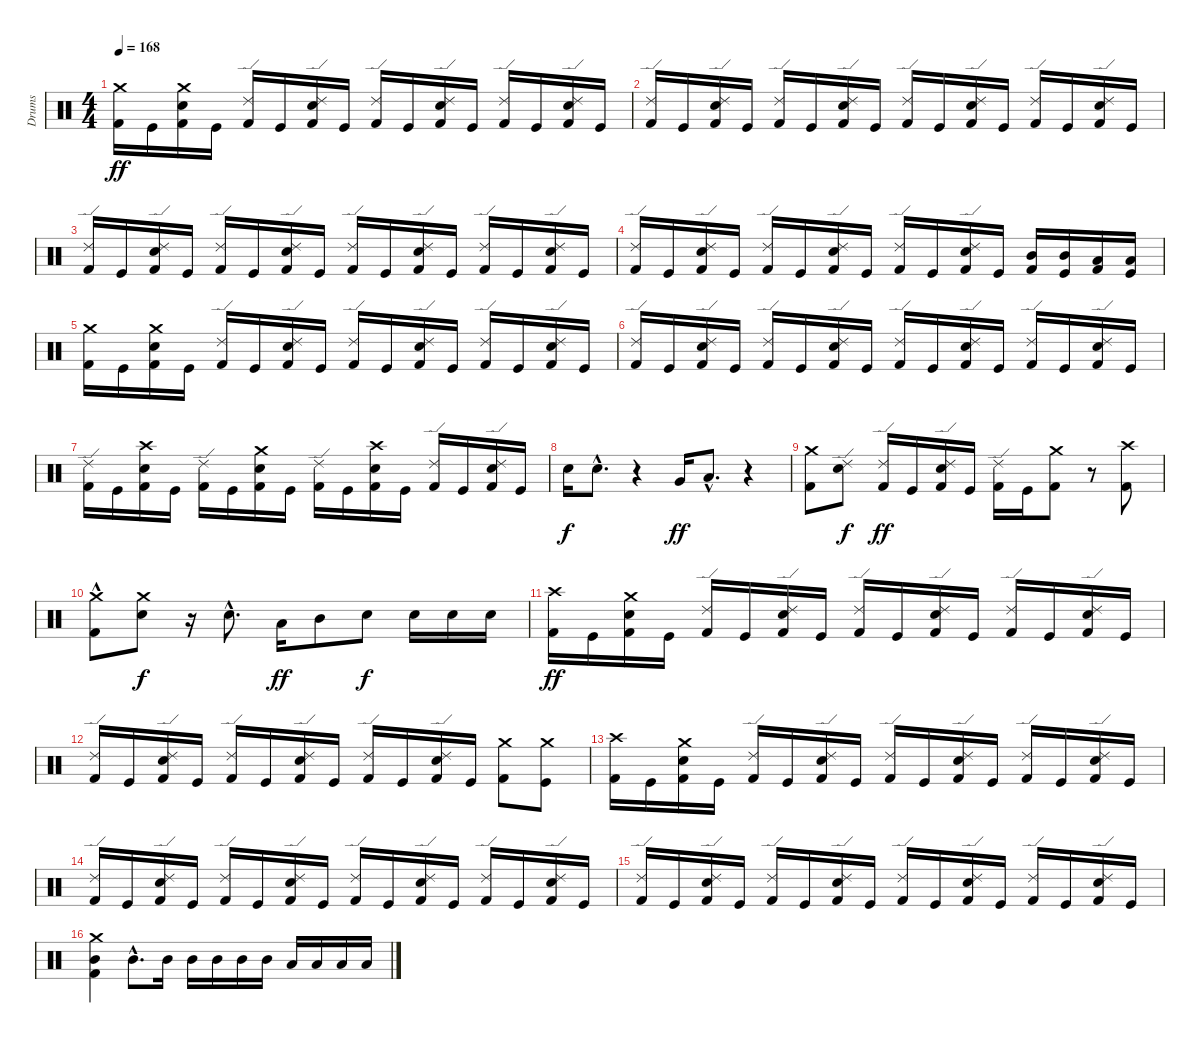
\track ("Drums" "Drums") {instrument percussion}
\staff {score}
\articulation defaults
\ts (4 4)
\tempo 168
\clef neutral
\ks c
("Crash medium (hit)" "Kick (hit) 2").16{dy ff} "Kick (hit)".16 ("Crash medium (hit)" "Electric Snare (hit)" "Kick (hit) 2").16 "Kick (hit)".16 ("Ride (edge) 2" "Kick (hit) 2").16 "Kick (hit)".16 ("Ride (edge) 2" "Electric Snare (hit)" "Kick (hit) 2").16 "Kick (hit)".16 ("Ride (edge) 2" "Kick (hit) 2").16 "Kick (hit)".16 ("Ride (edge) 2" "Electric Snare (hit)" "Kick (hit) 2").16 "Kick (hit)".16 ("Ride (edge) 2" "Kick (hit) 2").16 "Kick (hit)".16 ("Ride (edge) 2" "Electric Snare (hit)" "Kick (hit) 2").16 "Kick (hit)".16 |
("Ride (edge) 2" "Kick (hit) 2").16 "Kick (hit)".16 ("Ride (edge) 2" "Electric Snare (hit)" "Kick (hit) 2").16 "Kick (hit)".16 ("Ride (edge) 2" "Kick (hit) 2").16 "Kick (hit)".16 ("Ride (edge) 2" "Electric Snare (hit)" "Kick (hit) 2").16 "Kick (hit)".16 ("Ride (edge) 2" "Kick (hit) 2").16 "Kick (hit)".16 ("Ride (edge) 2" "Electric Snare (hit)" "Kick (hit) 2").16 "Kick (hit)".16 ("Ride (edge) 2" "Kick (hit) 2").16 "Kick (hit)".16 ("Ride (edge) 2" "Electric Snare (hit)" "Kick (hit) 2").16 "Kick (hit)".16 |
("Ride (edge) 2" "Kick (hit) 2").16 "Kick (hit)".16 ("Ride (edge) 2" "Electric Snare (hit)" "Kick (hit) 2").16 "Kick (hit)".16 ("Ride (edge) 2" "Kick (hit) 2").16 "Kick (hit)".16 ("Ride (edge) 2" "Electric Snare (hit)" "Kick (hit) 2").16 "Kick (hit)".16 ("Ride (edge) 2" "Kick (hit) 2").16 "Kick (hit)".16 ("Ride (edge) 2" "Electric Snare (hit)" "Kick (hit) 2").16 "Kick (hit)".16 ("Ride (edge) 2" "Kick (hit) 2").16 "Kick (hit)".16 ("Ride (edge) 2" "Electric Snare (hit)" "Kick (hit) 2").16 "Kick (hit)".16 |
("Ride (edge) 2" "Kick (hit) 2").16 "Kick (hit)".16 ("Ride (edge) 2" "Electric Snare (hit)" "Kick (hit) 2").16 "Kick (hit)".16 ("Ride (edge) 2" "Kick (hit) 2").16 "Kick (hit)".16 ("Ride (edge) 2" "Electric Snare (hit)" "Kick (hit) 2").16 "Kick (hit)".16 ("Ride (edge) 2" "Kick (hit) 2").16 "Kick (hit)".16 ("Ride (edge) 2" "Electric Snare (hit)" "Kick (hit) 2").16 "Kick (hit)".16 ("Mid Tom (hit)" "Kick (hit) 2").16 ("Mid Tom (hit)" "Kick (hit)").16 ("Low Tom (hit)" "Kick (hit) 2").16 ("Low Tom (hit)" "Kick (hit)").16 |
("Crash medium (hit)" "Kick (hit) 2").16 "Kick (hit)".16 ("Crash medium (hit)" "Electric Snare (hit)" "Kick (hit) 2").16 "Kick (hit)".16 ("Ride (edge) 2" "Kick (hit) 2").16 "Kick (hit)".16 ("Ride (edge) 2" "Electric Snare (hit)" "Kick (hit) 2").16 "Kick (hit)".16 ("Ride (edge) 2" "Kick (hit) 2").16 "Kick (hit)".16 ("Ride (edge) 2" "Electric Snare (hit)" "Kick (hit) 2").16 "Kick (hit)".16 ("Ride (edge) 2" "Kick (hit) 2").16 "Kick (hit)".16 ("Ride (edge) 2" "Electric Snare (hit)" "Kick (hit) 2").16 "Kick (hit)".16 |
("Ride (edge) 2" "Kick (hit) 2").16 "Kick (hit)".16 ("Ride (edge) 2" "Electric Snare (hit)" "Kick (hit) 2").16 "Kick (hit)".16 ("Ride (edge) 2" "Kick (hit) 2").16 "Kick (hit)".16 ("Ride (edge) 2" "Electric Snare (hit)" "Kick (hit) 2").16 "Kick (hit)".16 ("Ride (edge) 2" "Kick (hit) 2").16 "Kick (hit)".16 ("Ride (edge) 2" "Electric Snare (hit)" "Kick (hit) 2").16 "Kick (hit)".16 ("Ride (edge) 2" "Kick (hit) 2").16 "Kick (hit)".16 ("Ride (edge) 2" "Electric Snare (hit)" "Kick (hit) 2").16 "Kick (hit)".16 |
("Ride (edge) 2" "Kick (hit) 2").16 "Kick (hit)".16 ("Crash high (hit)" "Electric Snare (hit)" "Kick (hit) 2").16 "Kick (hit)".16 ("Ride (edge) 2" "Kick (hit) 2").16 "Kick (hit)".16 ("Crash medium (hit)" "Electric Snare (hit)" "Kick (hit) 2").16 "Kick (hit)".16 ("Ride (edge) 2" "Kick (hit) 2").16 "Kick (hit)".16 ("Crash high (hit)" "Electric Snare (hit)" "Kick (hit) 2").16 "Kick (hit)".16 ("Ride (edge) 2" "Kick (hit) 2").16 "Kick (hit)".16 ("Ride (edge) 2" "Electric Snare (hit)" "Kick (hit) 2").16 "Kick (hit)".16 |
"Electric Snare (hit)".16{dy f} "Electric Snare (hit)"{hac}.8{d} r.4 "Very Low Tom (hit)".16{dy ff} "Low Tom (hit)"{hac}.8{d} r.4 |
("Crash medium (hit)" "Kick (hit) 2").8 ("Ride (edge) 2" "Electric Snare (hit)").8{dy f} ("Ride (edge) 2" "Kick (hit) 2").16{dy ff} "Kick (hit)".16 ("Ride (edge) 2" "Electric Snare (hit)" "Kick (hit) 2").16 "Kick (hit)".16 ("Ride (edge) 2" "Kick (hit) 2").16 "Kick (hit)".16 ("Crash medium (hit)" "Kick (hit) 2").8 r.8 ("Crash high (hit)" "Kick (hit) 2").8 |
("Crash medium (hit)"{hac} "Kick (hit) 2").8 ("Crash medium (hit)" "Electric Snare (hit)").8{dy f} r.16 "Electric Snare (hit)"{hac}.8{d} "Low Tom (hit)".16{dy ff} "Mid Tom (hit)".8 "Electric Snare (hit)".8{dy f} "Electric Snare (hit)".16 "Electric Snare (hit)".16 "Electric Snare (hit)".16 |
("Crash high (hit)" "Kick (hit) 2").16{dy ff} "Kick (hit)".16 ("Crash medium (hit)" "Electric Snare (hit)" "Kick (hit) 2").16 "Kick (hit)".16 ("Ride (edge) 2" "Kick (hit) 2").16 "Kick (hit)".16 ("Ride (edge) 2" "Electric Snare (hit)" "Kick (hit) 2").16 "Kick (hit)".16 ("Ride (edge) 2" "Kick (hit) 2").16 "Kick (hit)".16 ("Ride (edge) 2" "Electric Snare (hit)" "Kick (hit) 2").16 "Kick (hit)".16 ("Ride (edge) 2" "Kick (hit) 2").16 "Kick (hit)".16 ("Ride (edge) 2" "Electric Snare (hit)" "Kick (hit) 2").16 "Kick (hit)".16 |
("Ride (edge) 2" "Kick (hit) 2").16 "Kick (hit)".16 ("Ride (edge) 2" "Electric Snare (hit)" "Kick (hit) 2").16 "Kick (hit)".16 ("Ride (edge) 2" "Kick (hit) 2").16 "Kick (hit)".16 ("Ride (edge) 2" "Electric Snare (hit)" "Kick (hit) 2").16 "Kick (hit)".16 ("Ride (edge) 2" "Kick (hit) 2").16 "Kick (hit)".16 ("Ride (edge) 2" "Electric Snare (hit)" "Kick (hit) 2").16 "Kick (hit)".16 ("Crash medium (hit)" "Kick (hit) 2").8 ("Crash medium (hit)" "Kick (hit)").8 |
("Crash high (hit)" "Kick (hit) 2").16 "Kick (hit)".16 ("Crash medium (hit)" "Electric Snare (hit)" "Kick (hit) 2").16 "Kick (hit)".16 ("Ride (edge) 2" "Kick (hit) 2").16 "Kick (hit)".16 ("Ride (edge) 2" "Electric Snare (hit)" "Kick (hit) 2").16 "Kick (hit)".16 ("Ride (edge) 2" "Kick (hit) 2").16 "Kick (hit)".16 ("Ride (edge) 2" "Electric Snare (hit)" "Kick (hit) 2").16 "Kick (hit)".16 ("Ride (edge) 2" "Kick (hit) 2").16 "Kick (hit)".16 ("Ride (edge) 2" "Electric Snare (hit)" "Kick (hit) 2").16 "Kick (hit)".16 |
("Ride (edge) 2" "Kick (hit) 2").16 "Kick (hit)".16 ("Ride (edge) 2" "Electric Snare (hit)" "Kick (hit) 2").16 "Kick (hit)".16 ("Ride (edge) 2" "Kick (hit) 2").16 "Kick (hit)".16 ("Ride (edge) 2" "Electric Snare (hit)" "Kick (hit) 2").16 "Kick (hit)".16 ("Ride (edge) 2" "Kick (hit) 2").16 "Kick (hit)".16 ("Ride (edge) 2" "Electric Snare (hit)" "Kick (hit) 2").16 "Kick (hit)".16 ("Ride (edge) 2" "Kick (hit) 2").16 "Kick (hit)".16 ("Ride (edge) 2" "Electric Snare (hit)" "Kick (hit) 2").16 "Kick (hit)".16 |
("Ride (edge) 2" "Kick (hit) 2").16 "Kick (hit)".16 ("Ride (edge) 2" "Electric Snare (hit)" "Kick (hit) 2").16 "Kick (hit)".16 ("Ride (edge) 2" "Kick (hit) 2").16 "Kick (hit)".16 ("Ride (edge) 2" "Electric Snare (hit)" "Kick (hit) 2").16 "Kick (hit)".16 ("Ride (edge) 2" "Kick (hit) 2").16 "Kick (hit)".16 ("Ride (edge) 2" "Electric Snare (hit)" "Kick (hit) 2").16 "Kick (hit)".16 ("Ride (edge) 2" "Kick (hit) 2").16 "Kick (hit)".16 ("Ride (edge) 2" "Electric Snare (hit)" "Kick (hit) 2").16 "Kick (hit)".16 |
("Crash medium (hit)" "Mid Tom (hit)" "Kick (hit) 2").4 "Mid Tom (hit)"{hac}.8{d} "Mid Tom (hit)".16 "Mid Tom (hit)".16 "Mid Tom (hit)".16 "Mid Tom (hit)".16 "Mid Tom (hit)".16 "Low Tom (hit)".16 "Low Tom (hit)".16 "Low Tom (hit)".16 "Low Tom (hit)".16
